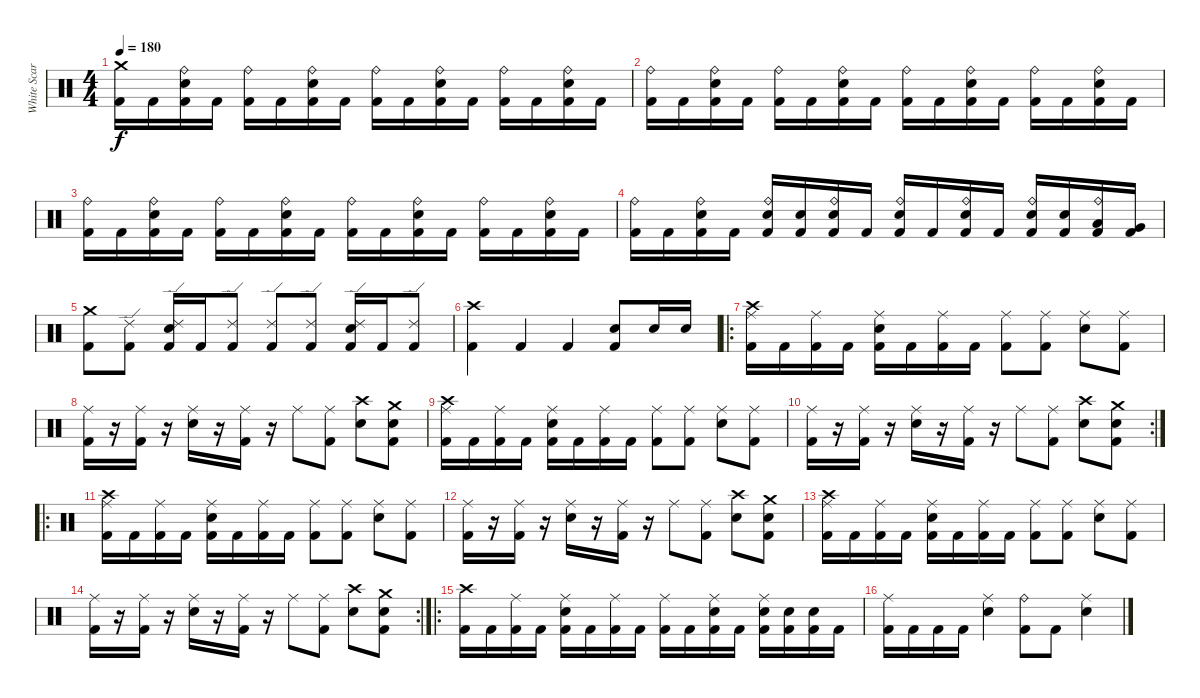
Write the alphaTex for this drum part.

\track ("White Scar" "White Scar") {instrument percussion}
\staff {score}
\articulation defaults
\ts (4 4)
\tempo 180
\clef neutral
\ks c
("Crash medium (hit)" "Kick (hit) 2").16{dy f} "Kick (hit) 2".16 ("Ride (bell)" "Snare (hit) 2" "Kick (hit) 2").16 "Kick (hit) 2".16 ("Ride (bell)" "Kick (hit) 2").16 "Kick (hit) 2".16 ("Ride (bell)" "Snare (hit) 2" "Kick (hit) 2").16 "Kick (hit) 2".16 ("Ride (bell)" "Kick (hit) 2").16 "Kick (hit) 2".16 ("Ride (bell)" "Snare (hit) 2" "Kick (hit) 2").16 "Kick (hit) 2".16 ("Ride (bell)" "Kick (hit) 2").16 "Kick (hit) 2".16 ("Ride (bell)" "Snare (hit) 2" "Kick (hit) 2").16 "Kick (hit) 2".16 |
("Ride (bell)" "Kick (hit) 2").16 "Kick (hit) 2".16 ("Ride (bell)" "Snare (hit) 2" "Kick (hit) 2").16 "Kick (hit) 2".16 ("Ride (bell)" "Kick (hit) 2").16 "Kick (hit) 2".16 ("Ride (bell)" "Snare (hit) 2" "Kick (hit) 2").16 "Kick (hit) 2".16 ("Ride (bell)" "Kick (hit) 2").16 "Kick (hit) 2".16 ("Ride (bell)" "Snare (hit) 2" "Kick (hit) 2").16 "Kick (hit) 2".16 ("Ride (bell)" "Kick (hit) 2").16 "Kick (hit) 2".16 ("Ride (bell)" "Snare (hit) 2" "Kick (hit) 2").16 "Kick (hit) 2".16 |
("Ride (bell)" "Kick (hit) 2").16 "Kick (hit) 2".16 ("Ride (bell)" "Snare (hit) 2" "Kick (hit) 2").16 "Kick (hit) 2".16 ("Ride (bell)" "Kick (hit) 2").16 "Kick (hit) 2".16 ("Ride (bell)" "Snare (hit) 2" "Kick (hit) 2").16 "Kick (hit) 2".16 ("Ride (bell)" "Kick (hit) 2").16 "Kick (hit) 2".16 ("Ride (bell)" "Snare (hit) 2" "Kick (hit) 2").16 "Kick (hit) 2".16 ("Ride (bell)" "Kick (hit) 2").16 "Kick (hit) 2".16 ("Ride (bell)" "Snare (hit) 2" "Kick (hit) 2").16 "Kick (hit) 2".16 |
("Ride (bell)" "Kick (hit) 2").16 "Kick (hit) 2".16 ("Ride (bell)" "Snare (hit) 2" "Kick (hit) 2").16 "Kick (hit) 2".16 ("Ride (bell)" "Snare (hit) 2" "Kick (hit) 2").16 ("Snare (hit) 2" "Kick (hit) 2").16 ("Ride (bell)" "Snare (hit) 2" "Kick (hit) 2").16 "Kick (hit) 2".16 ("Ride (bell)" "Snare (hit) 2" "Kick (hit) 2").16 "Kick (hit) 2".16 ("Ride (bell)" "Snare (hit) 2" "Kick (hit) 2").16 "Kick (hit) 2".16 ("Ride (bell)" "Snare (hit) 2" "Kick (hit) 2").16 ("Snare (hit) 2" "Kick (hit) 2").16 ("Ride (bell)" "Low Tom (hit)" "Kick (hit) 2").16 ("Very Low Tom (hit)" "Kick (hit) 2").16 |
("Crash medium (hit)" "Kick (hit) 2").8 ("Ride (edge) 2" "Kick (hit) 2").8 ("Snare (hit) 2" "Ride (edge) 2" "Kick (hit) 2").16 "Kick (hit) 2".16 ("Ride (edge) 2" "Kick (hit) 2").8 ("Ride (edge) 2" "Kick (hit) 2").8 ("Ride (edge) 2" "Kick (hit) 2").8 ("Snare (hit) 2" "Ride (edge) 2" "Kick (hit) 2").16 "Kick (hit) 2".16 ("Ride (edge) 2" "Kick (hit) 2").8 |
("Crash high (hit)" "Kick (hit) 2").4 "Kick (hit) 2".4 "Kick (hit) 2".4 ("Snare (hit) 2" "Kick (hit) 2").8 "Snare (hit) 2".16 "Snare (hit) 2".16 |
\ro
("Crash high (hit)" "Ride (middle)" "Kick (hit) 2").16 "Kick (hit) 2".16 ("Ride (middle)" "Kick (hit) 2").16 "Kick (hit) 2".16 ("Snare (hit) 2" "Ride (middle)" "Kick (hit) 2").16 "Kick (hit) 2".16 ("Ride (middle)" "Kick (hit) 2").16 "Kick (hit) 2".16 ("Ride (middle)" "Kick (hit) 2").8 ("Ride (middle)" "Kick (hit) 2").8 ("Snare (hit) 2" "Ride (middle)").8 ("Ride (middle)" "Kick (hit) 2").8 |
("Ride (middle)" "Kick (hit) 2").16 r.16 ("Ride (middle)" "Kick (hit) 2").16 r.16 ("Snare (hit) 2" "Ride (middle)").16 r.16 ("Ride (middle)" "Kick (hit) 2").16 r.16 "Ride (middle)".8 ("Ride (middle)" "Kick (hit) 2").8 ("Snare (hit) 2" "Crash high (hit)").8 ("Snare (hit) 2" "Crash medium (hit)" "Kick (hit) 2").8 |
("Crash high (hit)" "Ride (middle)" "Kick (hit) 2").16 "Kick (hit) 2".16 ("Ride (middle)" "Kick (hit) 2").16 "Kick (hit) 2".16 ("Snare (hit) 2" "Ride (middle)" "Kick (hit) 2").16 "Kick (hit) 2".16 ("Ride (middle)" "Kick (hit) 2").16 "Kick (hit) 2".16 ("Ride (middle)" "Kick (hit) 2").8 ("Ride (middle)" "Kick (hit) 2").8 ("Snare (hit) 2" "Ride (middle)").8 ("Ride (middle)" "Kick (hit) 2").8 |
\rc 2
("Ride (middle)" "Kick (hit) 2").16 r.16 ("Ride (middle)" "Kick (hit) 2").16 r.16 ("Snare (hit) 2" "Ride (middle)").16 r.16 ("Ride (middle)" "Kick (hit) 2").16 r.16 "Ride (middle)".8 ("Ride (middle)" "Kick (hit) 2").8 ("Snare (hit) 2" "Crash high (hit)").8 ("Snare (hit) 2" "Crash medium (hit)" "Kick (hit) 2").8 |
\ro
("Crash high (hit)" "Ride (middle)" "Kick (hit) 2").16 "Kick (hit) 2".16 ("Ride (middle)" "Kick (hit) 2").16 "Kick (hit) 2".16 ("Snare (hit) 2" "Ride (middle)" "Kick (hit) 2").16 "Kick (hit) 2".16 ("Ride (middle)" "Kick (hit) 2").16 "Kick (hit) 2".16 ("Ride (middle)" "Kick (hit) 2").8 ("Ride (middle)" "Kick (hit) 2").8 ("Snare (hit) 2" "Ride (middle)").8 ("Ride (middle)" "Kick (hit) 2").8 |
("Ride (middle)" "Kick (hit) 2").16 r.16 ("Ride (middle)" "Kick (hit) 2").16 r.16 ("Snare (hit) 2" "Ride (middle)").16 r.16 ("Ride (middle)" "Kick (hit) 2").16 r.16 "Ride (middle)".8 ("Ride (middle)" "Kick (hit) 2").8 ("Snare (hit) 2" "Crash high (hit)").8 ("Snare (hit) 2" "Crash medium (hit)" "Kick (hit) 2").8 |
("Crash high (hit)" "Ride (middle)" "Kick (hit) 2").16 "Kick (hit) 2".16 ("Ride (middle)" "Kick (hit) 2").16 "Kick (hit) 2".16 ("Snare (hit) 2" "Ride (middle)" "Kick (hit) 2").16 "Kick (hit) 2".16 ("Ride (middle)" "Kick (hit) 2").16 "Kick (hit) 2".16 ("Ride (middle)" "Kick (hit) 2").8 ("Ride (middle)" "Kick (hit) 2").8 ("Snare (hit) 2" "Ride (middle)").8 ("Ride (middle)" "Kick (hit) 2").8 |
\rc 2
("Ride (middle)" "Kick (hit) 2").16 r.16 ("Ride (middle)" "Kick (hit) 2").16 r.16 ("Snare (hit) 2" "Ride (middle)").16 r.16 ("Ride (middle)" "Kick (hit) 2").16 r.16 "Ride (middle)".8 ("Ride (middle)" "Kick (hit) 2").8 ("Snare (hit) 2" "Crash high (hit)").8 ("Snare (hit) 2" "Crash medium (hit)" "Kick (hit) 2").8 |
\ro
("Crash high (hit)" "Kick (hit) 2").16 "Kick (hit) 2".16 ("Ride (middle)" "Kick (hit) 2").16 "Kick (hit) 2".16 ("Ride (middle)" "Snare (hit) 2" "Kick (hit) 2").16 "Kick (hit) 2".16 ("Ride (middle)" "Kick (hit) 2").16 "Kick (hit) 2".16 ("Ride (middle)" "Kick (hit) 2").16 "Kick (hit) 2".16 ("Ride (middle)" "Snare (hit) 2" "Kick (hit) 2").16 "Kick (hit) 2".16 ("Ride (middle)" "Snare (hit) 2" "Kick (hit) 2").16 ("Snare (hit) 2" "Kick (hit) 2").16 ("Snare (hit)" "Kick (hit) 2").16 "Kick (hit) 2".16 |
("Ride (middle)" "Kick (hit) 2").16 "Kick (hit) 2".16 "Kick (hit) 2".16 "Kick (hit) 2".16 ("Ride (middle)" "Snare (hit) 2").4 ("Ride (bell)" "Kick (hit) 2").8 "Kick (hit) 2".8 ("Ride (middle)" "Snare (hit) 2").4
